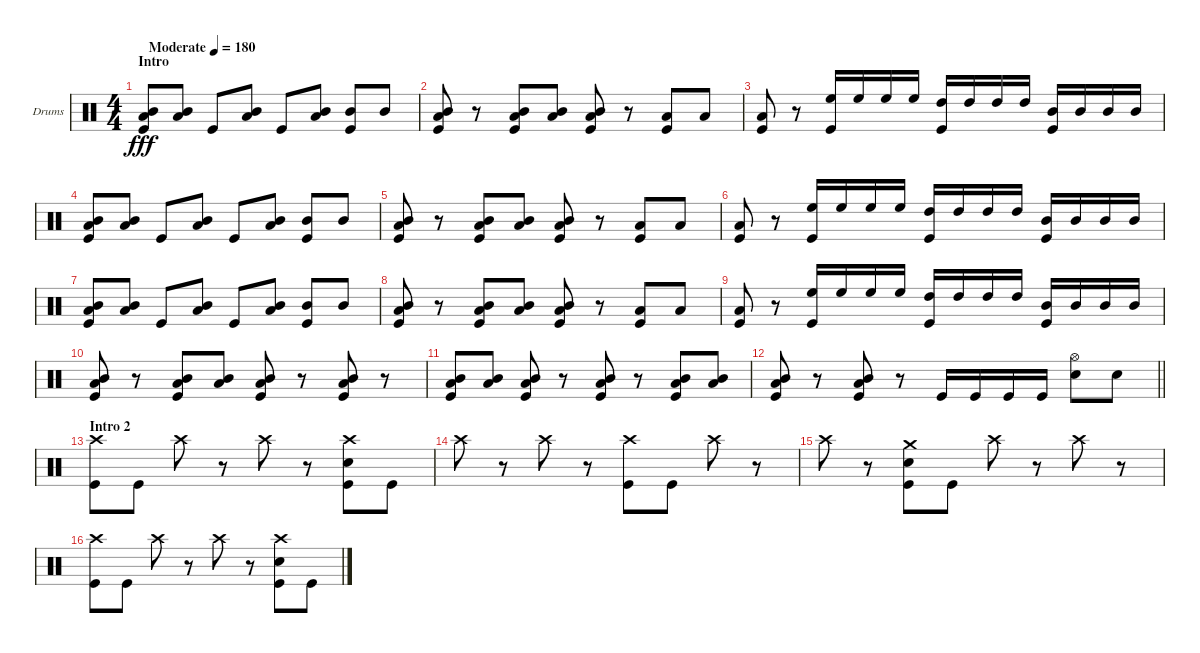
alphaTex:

\bracketExtendMode groupsimilarinstruments
\firstSystemTrackNameOrientation horizontal
\otherSystemsTrackNameOrientation horizontal
\track ("Drumkit" "Drums") {instrument percussion}
\staff {score}
\articulation defaults
\ts (4 4)
\beaming (8 2 2 2 2)
\section ("" "Intro ")
\tempo (180 "Moderate")
\clef neutral
\ks c
("Mid Tom (hit)" "Low Tom (hit)" "Kick (hit)").8{dy fff} ("Mid Tom (hit)" "Low Tom (hit)").8 "Kick (hit)".8 ("Mid Tom (hit)" "Low Tom (hit)").8 "Kick (hit)".8 ("Mid Tom (hit)" "Low Tom (hit)").8 ("Mid Tom (hit)" "Kick (hit)").8 "Mid Tom (hit)".8 |
("Mid Tom (hit)" "Low Tom (hit)" "Kick (hit)").8 r.8 ("Mid Tom (hit)" "Low Tom (hit)" "Kick (hit)").8 ("Mid Tom (hit)" "Low Tom (hit)").8 ("Mid Tom (hit)" "Low Tom (hit)" "Kick (hit)").8 r.8 ("Low Tom (hit)" "Kick (hit)").8 "Low Tom (hit)".8 |
("Low Tom (hit)" "Kick (hit)").8 r.8 ("High Floor Tom (hit)" "Kick (hit)").16 "High Floor Tom (hit)".16 "High Floor Tom (hit)".16 "High Floor Tom (hit)".16 ("High Tom (hit)" "Kick (hit)").16 "High Tom (hit)".16 "High Tom (hit)".16 "High Tom (hit)".16 ("Mid Tom (hit)" "Kick (hit)").16 "Mid Tom (hit)".16 "Mid Tom (hit)".16 "Mid Tom (hit)".16 |
("Mid Tom (hit)" "Low Tom (hit)" "Kick (hit)").8 ("Mid Tom (hit)" "Low Tom (hit)").8 "Kick (hit)".8 ("Mid Tom (hit)" "Low Tom (hit)").8 "Kick (hit)".8 ("Mid Tom (hit)" "Low Tom (hit)").8 ("Mid Tom (hit)" "Kick (hit)").8 "Mid Tom (hit)".8 |
("Mid Tom (hit)" "Low Tom (hit)" "Kick (hit)").8 r.8 ("Mid Tom (hit)" "Low Tom (hit)" "Kick (hit)").8 ("Mid Tom (hit)" "Low Tom (hit)").8 ("Mid Tom (hit)" "Low Tom (hit)" "Kick (hit)").8 r.8 ("Low Tom (hit)" "Kick (hit)").8 "Low Tom (hit)".8 |
("Low Tom (hit)" "Kick (hit)").8 r.8 ("High Floor Tom (hit)" "Kick (hit)").16 "High Floor Tom (hit)".16 "High Floor Tom (hit)".16 "High Floor Tom (hit)".16 ("High Tom (hit)" "Kick (hit)").16 "High Tom (hit)".16 "High Tom (hit)".16 "High Tom (hit)".16 ("Mid Tom (hit)" "Kick (hit)").16 "Mid Tom (hit)".16 "Mid Tom (hit)".16 "Mid Tom (hit)".16 |
("Mid Tom (hit)" "Low Tom (hit)" "Kick (hit)").8 ("Mid Tom (hit)" "Low Tom (hit)").8 "Kick (hit)".8 ("Mid Tom (hit)" "Low Tom (hit)").8 "Kick (hit)".8 ("Mid Tom (hit)" "Low Tom (hit)").8 ("Mid Tom (hit)" "Kick (hit)").8 "Mid Tom (hit)".8 |
("Mid Tom (hit)" "Low Tom (hit)" "Kick (hit)").8 r.8 ("Mid Tom (hit)" "Low Tom (hit)" "Kick (hit)").8 ("Mid Tom (hit)" "Low Tom (hit)").8 ("Mid Tom (hit)" "Low Tom (hit)" "Kick (hit)").8 r.8 ("Low Tom (hit)" "Kick (hit)").8 "Low Tom (hit)".8 |
("Low Tom (hit)" "Kick (hit)").8 r.8 ("High Floor Tom (hit)" "Kick (hit)").16 "High Floor Tom (hit)".16 "High Floor Tom (hit)".16 "High Floor Tom (hit)".16 ("High Tom (hit)" "Kick (hit)").16 "High Tom (hit)".16 "High Tom (hit)".16 "High Tom (hit)".16 ("Mid Tom (hit)" "Kick (hit)").16 "Mid Tom (hit)".16 "Mid Tom (hit)".16 "Mid Tom (hit)".16 |
("Mid Tom (hit)" "Low Tom (hit)" "Kick (hit)").8 r.8 ("Mid Tom (hit)" "Low Tom (hit)" "Kick (hit)").8 ("Mid Tom (hit)" "Low Tom (hit)").8 ("Mid Tom (hit)" "Low Tom (hit)" "Kick (hit)").8 r.8 ("Mid Tom (hit)" "Low Tom (hit)" "Kick (hit)").8 r.8 |
("Mid Tom (hit)" "Low Tom (hit)" "Kick (hit)").8 ("Mid Tom (hit)" "Low Tom (hit)").8 ("Mid Tom (hit)" "Low Tom (hit)" "Kick (hit)").8 r.8 ("Mid Tom (hit)" "Low Tom (hit)" "Kick (hit)").8 r.8 ("Mid Tom (hit)" "Low Tom (hit)" "Kick (hit)").8 ("Mid Tom (hit)" "Low Tom (hit)").8 |
\barLineRight lightlight
("Mid Tom (hit)" "Low Tom (hit)" "Kick (hit)").8 r.8 ("Mid Tom (hit)" "Low Tom (hit)" "Kick (hit)").8 r.8 "Kick (hit)".16 "Kick (hit)".16 "Kick (hit)".16 "Kick (hit)".16 ("Hi-Hat (open)" "Snare (hit) 2").8 "Snare (hit) 2".8 |
\section ("" "Intro 2 ")
("Crash high (hit)" "Kick (hit)").8 "Kick (hit)".8 "Crash high (hit)".8 r.8 "Crash high (hit)".8 r.8 ("Crash high (hit)" "Snare (hit) 2" "Kick (hit)").8 "Kick (hit)".8 |
"Crash high (hit)".8 r.8 "Crash high (hit)".8 r.8 ("Crash high (hit)" "Kick (hit)").8 "Kick (hit)".8 "Crash high (hit)".8 r.8 |
"Crash high (hit)".8 r.8 ("Crash medium (hit)" "Snare (hit) 2" "Kick (hit)").8 "Kick (hit)".8 "Crash high (hit)".8 r.8 "Crash high (hit)".8 r.8 |
("Crash high (hit)" "Kick (hit)").8 "Kick (hit)".8 "Crash high (hit)".8 r.8 "Crash high (hit)".8 r.8 ("Crash high (hit)" "Snare (hit) 2" "Kick (hit)").8 "Kick (hit)".8
